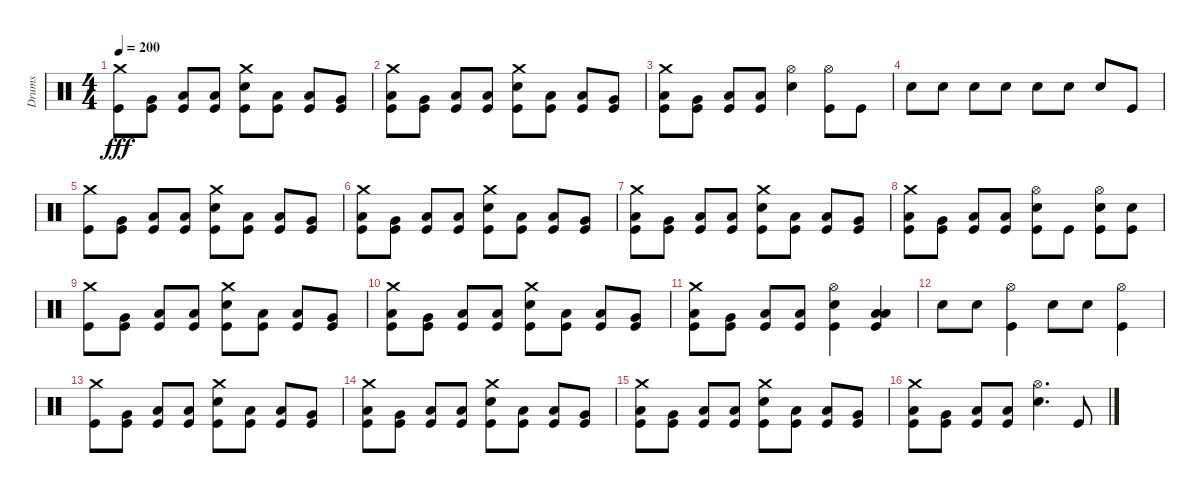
\track ("Drums" "Drums") {instrument percussion}
\staff {score}
\articulation defaults
\ts (4 4)
\tempo 200
\clef neutral
\ks c
("Crash medium (hit)" "Kick (hit)").8{dy fff} ("Very Low Tom (hit)" "Kick (hit)").8 ("Low Floor Tom (hit)" "Kick (hit)").8 ("Low Floor Tom (hit)" "Kick (hit)").8 ("Crash medium (hit)" "Snare (hit) 2" "Kick (hit)").8 ("Low Floor Tom (hit)" "Kick (hit)").8 ("Low Floor Tom (hit)" "Kick (hit)").8 ("Very Low Tom (hit)" "Kick (hit)").8 |
("Crash medium (hit)" "Low Floor Tom (hit)" "Kick (hit)").8 ("Very Low Tom (hit)" "Kick (hit)").8 ("Low Floor Tom (hit)" "Kick (hit)").8 ("Low Floor Tom (hit)" "Kick (hit)").8 ("Crash medium (hit)" "Snare (hit) 2" "Kick (hit)").8 ("Low Floor Tom (hit)" "Kick (hit)").8 ("Low Floor Tom (hit)" "Kick (hit)").8 ("Very Low Tom (hit)" "Kick (hit)").8 |
("Crash medium (hit)" "Low Floor Tom (hit)" "Kick (hit)").8 ("Very Low Tom (hit)" "Kick (hit)").8 ("Low Floor Tom (hit)" "Kick (hit)").8 ("Low Floor Tom (hit)" "Kick (hit)").8 ("Hi-Hat (open)" "Snare (hit) 2").4 ("Hi-Hat (open)" "Kick (hit)").8 "Kick (hit)".8 |
"Snare (hit) 2".8 "Snare (hit) 2".8 "Snare (hit) 2".8 "Snare (hit) 2".8 "Snare (hit) 2".8 "Snare (hit) 2".8 "Snare (hit) 2".8 "Kick (hit)".8 |
("Crash medium (hit)" "Kick (hit)").8 ("Very Low Tom (hit)" "Kick (hit)").8 ("Low Floor Tom (hit)" "Kick (hit)").8 ("Low Floor Tom (hit)" "Kick (hit)").8 ("Crash medium (hit)" "Snare (hit) 2" "Kick (hit)").8 ("Low Floor Tom (hit)" "Kick (hit)").8 ("Low Floor Tom (hit)" "Kick (hit)").8 ("Very Low Tom (hit)" "Kick (hit)").8 |
("Crash medium (hit)" "Low Floor Tom (hit)" "Kick (hit)").8 ("Very Low Tom (hit)" "Kick (hit)").8 ("Low Floor Tom (hit)" "Kick (hit)").8 ("Low Floor Tom (hit)" "Kick (hit)").8 ("Crash medium (hit)" "Snare (hit) 2" "Kick (hit)").8 ("Low Floor Tom (hit)" "Kick (hit)").8 ("Low Floor Tom (hit)" "Kick (hit)").8 ("Very Low Tom (hit)" "Kick (hit)").8 |
("Crash medium (hit)" "Low Floor Tom (hit)" "Kick (hit)").8 ("Very Low Tom (hit)" "Kick (hit)").8 ("Low Floor Tom (hit)" "Kick (hit)").8 ("Low Floor Tom (hit)" "Kick (hit)").8 ("Crash medium (hit)" "Snare (hit) 2" "Kick (hit)").8 ("Low Floor Tom (hit)" "Kick (hit)").8 ("Low Floor Tom (hit)" "Kick (hit)").8 ("Very Low Tom (hit)" "Kick (hit)").8 |
("Crash medium (hit)" "Low Floor Tom (hit)" "Kick (hit)").8 ("Very Low Tom (hit)" "Kick (hit)").8 ("Low Floor Tom (hit)" "Kick (hit)").8 ("Low Floor Tom (hit)" "Kick (hit)").8 ("Hi-Hat (open)" "Snare (hit) 2" "Kick (hit)").8 "Kick (hit)".8 ("Hi-Hat (open)" "Snare (hit) 2" "Kick (hit)").8 ("Snare (hit) 2" "Kick (hit)").8 |
("Crash medium (hit)" "Kick (hit)").8 ("Very Low Tom (hit)" "Kick (hit)").8 ("Low Floor Tom (hit)" "Kick (hit)").8 ("Low Floor Tom (hit)" "Kick (hit)").8 ("Crash medium (hit)" "Snare (hit) 2" "Kick (hit)").8 ("Low Floor Tom (hit)" "Kick (hit)").8 ("Low Floor Tom (hit)" "Kick (hit)").8 ("Very Low Tom (hit)" "Kick (hit)").8 |
("Crash medium (hit)" "Low Floor Tom (hit)" "Kick (hit)").8 ("Very Low Tom (hit)" "Kick (hit)").8 ("Low Floor Tom (hit)" "Kick (hit)").8 ("Low Floor Tom (hit)" "Kick (hit)").8 ("Crash medium (hit)" "Snare (hit) 2" "Kick (hit)").8 ("Low Floor Tom (hit)" "Kick (hit)").8 ("Low Floor Tom (hit)" "Kick (hit)").8 ("Very Low Tom (hit)" "Kick (hit)").8 |
("Crash medium (hit)" "Low Floor Tom (hit)" "Kick (hit)").8 ("Very Low Tom (hit)" "Kick (hit)").8 ("Low Floor Tom (hit)" "Kick (hit)").8 ("Low Floor Tom (hit)" "Kick (hit)").8 ("Hi-Hat (open)" "Snare (hit) 2" "Kick (hit)").4 ("Low Floor Tom (hit)" "Low Floor Tom (hit)" "Kick (hit)").4 |
"Snare (hit) 2".8 "Snare (hit) 2".8 ("Hi-Hat (open)" "Kick (hit)").4 "Snare (hit) 2".8 "Snare (hit) 2".8 ("Hi-Hat (open)" "Kick (hit)").4 |
("Crash medium (hit)" "Kick (hit)").8 ("Very Low Tom (hit)" "Kick (hit)").8 ("Low Floor Tom (hit)" "Kick (hit)").8 ("Low Floor Tom (hit)" "Kick (hit)").8 ("Crash medium (hit)" "Snare (hit) 2" "Kick (hit)").8 ("Low Floor Tom (hit)" "Kick (hit)").8 ("Low Floor Tom (hit)" "Kick (hit)").8 ("Very Low Tom (hit)" "Kick (hit)").8 |
("Crash medium (hit)" "Low Floor Tom (hit)" "Kick (hit)").8 ("Very Low Tom (hit)" "Kick (hit)").8 ("Low Floor Tom (hit)" "Kick (hit)").8 ("Low Floor Tom (hit)" "Kick (hit)").8 ("Crash medium (hit)" "Snare (hit) 2" "Kick (hit)").8 ("Low Floor Tom (hit)" "Kick (hit)").8 ("Low Floor Tom (hit)" "Kick (hit)").8 ("Very Low Tom (hit)" "Kick (hit)").8 |
("Crash medium (hit)" "Low Floor Tom (hit)" "Kick (hit)").8 ("Very Low Tom (hit)" "Kick (hit)").8 ("Low Floor Tom (hit)" "Kick (hit)").8 ("Low Floor Tom (hit)" "Kick (hit)").8 ("Crash medium (hit)" "Snare (hit) 2" "Kick (hit)").8 ("Low Floor Tom (hit)" "Kick (hit)").8 ("Low Floor Tom (hit)" "Kick (hit)").8 ("Very Low Tom (hit)" "Kick (hit)").8 |
("Crash medium (hit)" "Low Floor Tom (hit)" "Kick (hit)").8 ("Very Low Tom (hit)" "Kick (hit)").8 ("Low Floor Tom (hit)" "Kick (hit)").8 ("Low Floor Tom (hit)" "Kick (hit)").8 ("Hi-Hat (open)" "Snare (hit) 2").4{d} "Kick (hit)".8
